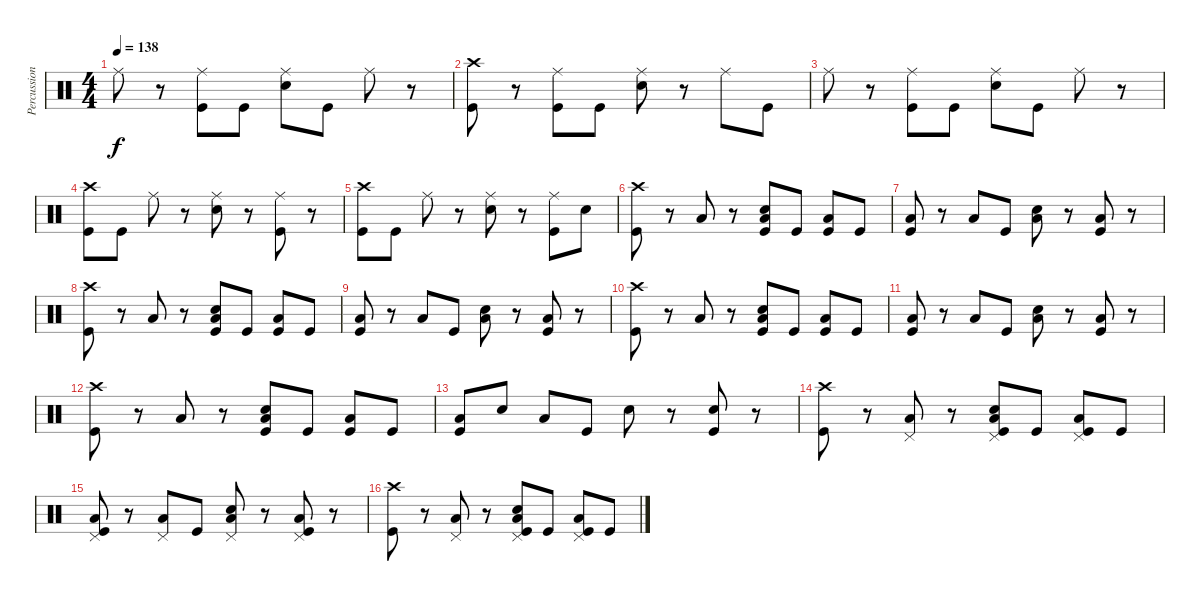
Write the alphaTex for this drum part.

\track ("Percussion" "Percussion") {instrument percussion}
\staff {score}
\articulation defaults
\ts (4 4)
\tempo 138
\clef neutral
\ks c "Ride (middle)".8{dy f}
r.8 ("Ride (middle)" "Kick (hit)").8 "Kick (hit)".8 ("Snare (hit) 2" "Ride (middle)").8 "Kick (hit)".8 "Ride (middle)".8 r.8 |
("Crash high (hit)" "Kick (hit)").8 r.8 ("Ride (middle)" "Kick (hit)").8 "Kick (hit)".8 ("Snare (hit) 2" "Ride (middle)").8 r.8 "Ride (middle)".8 "Kick (hit)".8 |
"Ride (middle)".8 r.8 ("Ride (middle)" "Kick (hit)").8 "Kick (hit)".8 ("Snare (hit) 2" "Ride (middle)").8 "Kick (hit)".8 "Ride (middle)".8 r.8 |
("Crash high (hit)" "Kick (hit)").8 "Kick (hit)".8 "Ride (middle)".8 r.8 ("Snare (hit) 2" "Ride (middle)").8 r.8 ("Ride (middle)" "Kick (hit)").8 r.8 |
("Crash high (hit)" "Kick (hit)").8 "Kick (hit)".8 "Ride (middle)".8 r.8 ("Snare (hit) 2" "Ride (middle)").8 r.8 ("Ride (middle)" "Kick (hit)").8 "Snare (hit) 2".8 |
("Crash high (hit)" "Kick (hit)").8 r.8 "Low Tom (hit)".8 r.8 ("Snare (hit) 2" "Low Tom (hit)" "Kick (hit)").8 "Kick (hit)".8 ("Low Tom (hit)" "Kick (hit)").8 "Kick (hit)".8 |
("Low Tom (hit)" "Kick (hit)").8 r.8 "Low Tom (hit)".8 "Kick (hit)".8 ("Snare (hit) 2" "Low Tom (hit)").8 r.8 ("Low Tom (hit)" "Kick (hit)").8 r.8 |
("Crash high (hit)" "Kick (hit)").8 r.8 "Low Tom (hit)".8 r.8 ("Snare (hit) 2" "Low Tom (hit)" "Kick (hit)").8 "Kick (hit)".8 ("Low Tom (hit)" "Kick (hit)").8 "Kick (hit)".8 |
("Low Tom (hit)" "Kick (hit)").8 r.8 "Low Tom (hit)".8 "Kick (hit)".8 ("Snare (hit) 2" "Low Tom (hit)").8 r.8 ("Low Tom (hit)" "Kick (hit)").8 r.8 |
("Crash high (hit)" "Kick (hit)").8 r.8 "Low Tom (hit)".8 r.8 ("Snare (hit) 2" "Low Tom (hit)" "Kick (hit)").8 "Kick (hit)".8 ("Low Tom (hit)" "Kick (hit)").8 "Kick (hit)".8 |
("Low Tom (hit)" "Kick (hit)").8 r.8 "Low Tom (hit)".8 "Kick (hit)".8 ("Snare (hit) 2" "Low Tom (hit)").8 r.8 ("Low Tom (hit)" "Kick (hit)").8 r.8 |
("Crash high (hit)" "Kick (hit)").8 r.8 "Low Tom (hit)".8 r.8 ("Snare (hit) 2" "Low Tom (hit)" "Kick (hit)").8 "Kick (hit)".8 ("Low Tom (hit)" "Kick (hit)").8 "Kick (hit)".8 |
("Low Tom (hit)" "Kick (hit)").8 "Snare (hit) 2".8 "Low Tom (hit)".8 "Kick (hit)".8 "Snare (hit) 2".8 r.8 ("Snare (hit) 2" "Kick (hit)").8 r.8 |
("Crash high (hit)" "Kick (hit)").8 r.8 ("Low Tom (hit)" "Pedal Hi-Hat (hit)").8 r.8 ("Snare (hit) 2" "Low Tom (hit)" "Pedal Hi-Hat (hit)" "Kick (hit)").8 "Kick (hit)".8 ("Low Tom (hit)" "Pedal Hi-Hat (hit)" "Kick (hit)").8 "Kick (hit)".8 |
("Low Tom (hit)" "Pedal Hi-Hat (hit)" "Kick (hit)").8 r.8 ("Low Tom (hit)" "Pedal Hi-Hat (hit)").8 "Kick (hit)".8 ("Snare (hit) 2" "Low Tom (hit)" "Pedal Hi-Hat (hit)").8 r.8 ("Low Tom (hit)" "Pedal Hi-Hat (hit)" "Kick (hit)").8 r.8 |
("Crash high (hit)" "Kick (hit)").8 r.8 ("Low Tom (hit)" "Pedal Hi-Hat (hit)").8 r.8 ("Snare (hit) 2" "Low Tom (hit)" "Pedal Hi-Hat (hit)" "Kick (hit)").8 "Kick (hit)".8 ("Low Tom (hit)" "Pedal Hi-Hat (hit)" "Kick (hit)").8 "Kick (hit)".8
